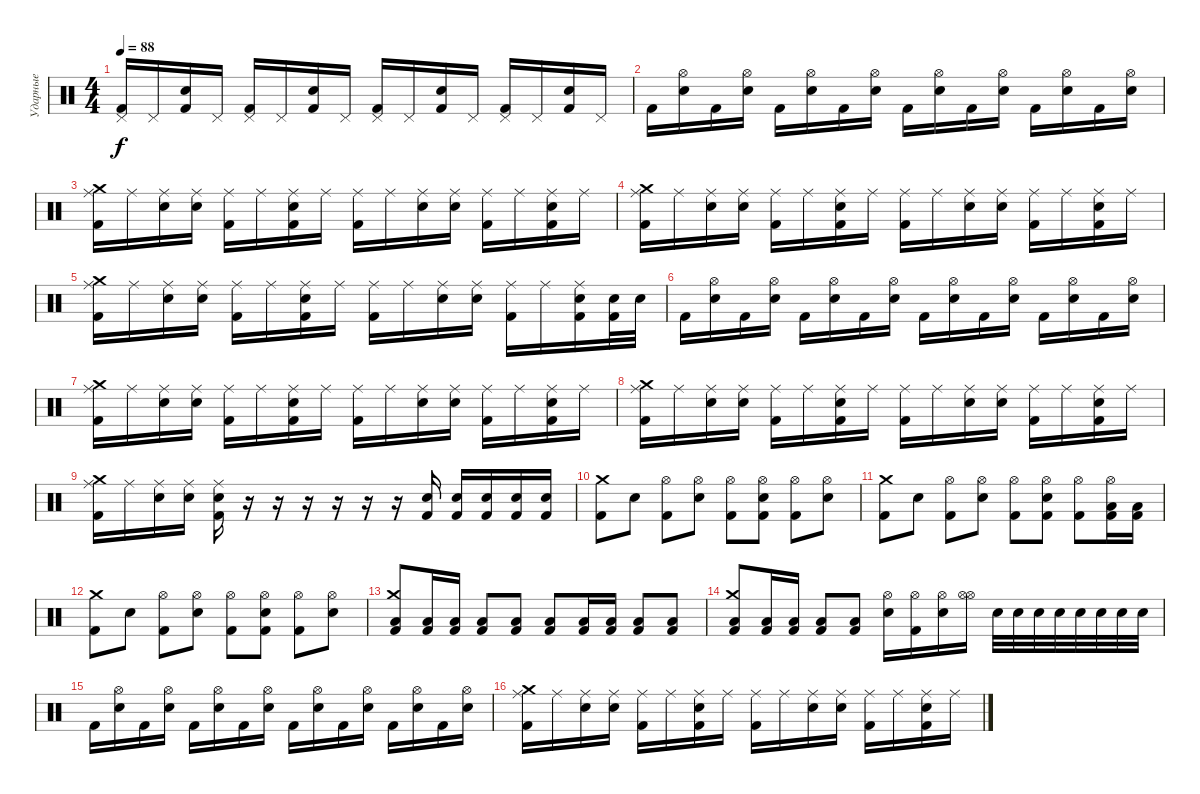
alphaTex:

\track ("Ударные" "Ударные") {instrument percussion}
\staff {score}
\articulation defaults
\ts (4 4)
\tempo 88
\clef neutral
\ks c
("Kick (hit) 2" "Pedal Hi-Hat (hit)").16{dy f} "Pedal Hi-Hat (hit)".16 ("Kick (hit) 2" "Electric Snare (hit)").16 "Pedal Hi-Hat (hit)".16 ("Kick (hit) 2" "Pedal Hi-Hat (hit)").16 "Pedal Hi-Hat (hit)".16 ("Kick (hit) 2" "Electric Snare (hit)").16 "Pedal Hi-Hat (hit)".16 ("Kick (hit) 2" "Pedal Hi-Hat (hit)").16 "Pedal Hi-Hat (hit)".16 ("Kick (hit) 2" "Electric Snare (hit)").16 "Pedal Hi-Hat (hit)".16 ("Kick (hit) 2" "Pedal Hi-Hat (hit)").16 "Pedal Hi-Hat (hit)".16 ("Kick (hit) 2" "Electric Snare (hit)").16 "Pedal Hi-Hat (hit)".16 |
"Kick (hit) 2".16 ("Electric Snare (hit)" "Hi-Hat (open)").16 "Kick (hit) 2".16 ("Electric Snare (hit)" "Hi-Hat (open)").16 "Kick (hit) 2".16 ("Electric Snare (hit)" "Hi-Hat (open)").16 "Kick (hit) 2".16 ("Electric Snare (hit)" "Hi-Hat (open)").16 "Kick (hit) 2".16 ("Electric Snare (hit)" "Hi-Hat (open)").16 "Kick (hit) 2".16 ("Electric Snare (hit)" "Hi-Hat (open)").16 "Kick (hit) 2".16 ("Electric Snare (hit)" "Hi-Hat (open)").16 "Kick (hit) 2".16 ("Electric Snare (hit)" "Hi-Hat (open)").16 |
("Kick (hit) 2" "Ride (middle)" "Crash medium (hit)").16 "Ride (middle)".16 ("Ride (middle)" "Electric Snare (hit)").16 ("Ride (middle)" "Electric Snare (hit)").16 ("Kick (hit) 2" "Ride (middle)").16 "Ride (middle)".16 ("Kick (hit) 2" "Ride (middle)" "Electric Snare (hit)").16 "Ride (middle)".16 ("Kick (hit) 2" "Ride (middle)").16 "Ride (middle)".16 ("Ride (middle)" "Electric Snare (hit)").16 ("Ride (middle)" "Electric Snare (hit)").16 ("Kick (hit) 2" "Ride (middle)").16 "Ride (middle)".16 ("Kick (hit) 2" "Ride (middle)" "Electric Snare (hit)").16 "Ride (middle)".16 |
("Kick (hit) 2" "Ride (middle)" "Crash medium (hit)").16 "Ride (middle)".16 ("Ride (middle)" "Electric Snare (hit)").16 ("Ride (middle)" "Electric Snare (hit)").16 ("Kick (hit) 2" "Ride (middle)").16 "Ride (middle)".16 ("Kick (hit) 2" "Ride (middle)" "Electric Snare (hit)").16 "Ride (middle)".16 ("Kick (hit) 2" "Ride (middle)").16 "Ride (middle)".16 ("Ride (middle)" "Electric Snare (hit)").16 ("Ride (middle)" "Electric Snare (hit)").16 ("Kick (hit) 2" "Ride (middle)").16 "Ride (middle)".16 ("Kick (hit) 2" "Ride (middle)" "Electric Snare (hit)").16 "Ride (middle)".16 |
("Kick (hit) 2" "Ride (middle)" "Crash medium (hit)").16 "Ride (middle)".16 ("Ride (middle)" "Electric Snare (hit)").16 ("Ride (middle)" "Electric Snare (hit)").16 ("Kick (hit) 2" "Ride (middle)").16 "Ride (middle)".16 ("Kick (hit) 2" "Ride (middle)" "Electric Snare (hit)").16 "Ride (middle)".16 ("Kick (hit) 2" "Ride (middle)").16 "Ride (middle)".16 ("Ride (middle)" "Electric Snare (hit)").16 ("Ride (middle)" "Electric Snare (hit)").16 ("Kick (hit) 2" "Ride (middle)").16 "Ride (middle)".16 ("Kick (hit) 2" "Ride (middle)" "Electric Snare (hit)").16 ("Kick (hit) 2" "Electric Snare (hit)").32 "Electric Snare (hit)".32 |
"Kick (hit) 2".16 ("Electric Snare (hit)" "Hi-Hat (open)").16 "Kick (hit) 2".16 ("Electric Snare (hit)" "Hi-Hat (open)").16 "Kick (hit) 2".16 ("Electric Snare (hit)" "Hi-Hat (open)").16 "Kick (hit) 2".16 ("Electric Snare (hit)" "Hi-Hat (open)").16 "Kick (hit) 2".16 ("Electric Snare (hit)" "Hi-Hat (open)").16 "Kick (hit) 2".16 ("Electric Snare (hit)" "Hi-Hat (open)").16 "Kick (hit) 2".16 ("Electric Snare (hit)" "Hi-Hat (open)").16 "Kick (hit) 2".16 ("Electric Snare (hit)" "Hi-Hat (open)").16 |
("Kick (hit) 2" "Ride (middle)" "Crash medium (hit)").16 "Ride (middle)".16 ("Ride (middle)" "Electric Snare (hit)").16 ("Ride (middle)" "Electric Snare (hit)").16 ("Kick (hit) 2" "Ride (middle)").16 "Ride (middle)".16 ("Kick (hit) 2" "Ride (middle)" "Electric Snare (hit)").16 "Ride (middle)".16 ("Kick (hit) 2" "Ride (middle)").16 "Ride (middle)".16 ("Ride (middle)" "Electric Snare (hit)").16 ("Ride (middle)" "Electric Snare (hit)").16 ("Kick (hit) 2" "Ride (middle)").16 "Ride (middle)".16 ("Kick (hit) 2" "Ride (middle)" "Electric Snare (hit)").16 "Ride (middle)".16 |
("Kick (hit) 2" "Ride (middle)" "Crash medium (hit)").16 "Ride (middle)".16 ("Ride (middle)" "Electric Snare (hit)").16 ("Ride (middle)" "Electric Snare (hit)").16 ("Kick (hit) 2" "Ride (middle)").16 "Ride (middle)".16 ("Kick (hit) 2" "Ride (middle)" "Electric Snare (hit)").16 "Ride (middle)".16 ("Kick (hit) 2" "Ride (middle)").16 "Ride (middle)".16 ("Ride (middle)" "Electric Snare (hit)").16 ("Ride (middle)" "Electric Snare (hit)").16 ("Kick (hit) 2" "Ride (middle)").16 "Ride (middle)".16 ("Kick (hit) 2" "Ride (middle)" "Electric Snare (hit)").16 "Ride (middle)".16 |
("Kick (hit) 2" "Ride (middle)" "Crash medium (hit)").16 "Ride (middle)".16 ("Ride (middle)" "Electric Snare (hit)").16 ("Ride (middle)" "Electric Snare (hit)").16 ("Kick (hit) 2" "Electric Snare (hit)" "Ride (middle)").16 r.16 r.16 r.16 r.16 r.16 r.16 ("Kick (hit) 2" "Electric Snare (hit)").16 ("Kick (hit) 2" "Electric Snare (hit)").16 ("Kick (hit) 2" "Electric Snare (hit)").16 ("Kick (hit) 2" "Electric Snare (hit)").16 ("Kick (hit) 2" "Electric Snare (hit)").16 |
("Kick (hit) 2" "Crash medium (hit)").8 "Electric Snare (hit)".8 ("Kick (hit) 2" "Hi-Hat (open)").8 ("Electric Snare (hit)" "Hi-Hat (open)").8 ("Kick (hit) 2" "Hi-Hat (open)").8 ("Kick (hit) 2" "Electric Snare (hit)" "Hi-Hat (open)").8 ("Kick (hit) 2" "Hi-Hat (open)").8 ("Electric Snare (hit)" "Hi-Hat (open)").8 |
("Kick (hit) 2" "Crash medium (hit)").8 "Electric Snare (hit)".8 ("Kick (hit) 2" "Hi-Hat (open)").8 ("Electric Snare (hit)" "Hi-Hat (open)").8 ("Kick (hit) 2" "Hi-Hat (open)").8 ("Kick (hit) 2" "Electric Snare (hit)" "Hi-Hat (open)").8 ("Kick (hit) 2" "Hi-Hat (open)").8 ("Kick (hit) 2" "Low Tom (hit)" "Hi-Hat (open)").16 ("Kick (hit) 2" "Low Tom (hit)").16 |
("Kick (hit) 2" "Crash medium (hit)").8 "Electric Snare (hit)".8 ("Kick (hit) 2" "Hi-Hat (open)").8 ("Electric Snare (hit)" "Hi-Hat (open)").8 ("Kick (hit) 2" "Hi-Hat (open)").8 ("Kick (hit) 2" "Electric Snare (hit)" "Hi-Hat (open)").8 ("Kick (hit) 2" "Hi-Hat (open)").8 ("Electric Snare (hit)" "Hi-Hat (open)").8 |
("Kick (hit) 2" "Low Tom (hit)" "Crash medium (hit)").8 ("Kick (hit) 2" "Low Tom (hit)").16 ("Kick (hit) 2" "Low Tom (hit)").16 ("Kick (hit) 2" "Low Tom (hit)").8 ("Kick (hit) 2" "Low Tom (hit)").8 ("Kick (hit) 2" "Low Tom (hit)").8 ("Kick (hit) 2" "Low Tom (hit)").16 ("Kick (hit) 2" "Low Tom (hit)").16 ("Kick (hit) 2" "Low Tom (hit)").8 ("Kick (hit) 2" "Low Tom (hit)").8 |
("Kick (hit) 2" "Low Tom (hit)" "Crash medium (hit)").8 ("Kick (hit) 2" "Low Tom (hit)").16 ("Kick (hit) 2" "Low Tom (hit)").16 ("Kick (hit) 2" "Low Tom (hit)").8 ("Kick (hit) 2" "Low Tom (hit)").8 ("Electric Snare (hit)" "Hi-Hat (open)").16 ("Kick (hit) 2" "Hi-Hat (open)").16 ("Electric Snare (hit)" "Hi-Hat (open)").16 ("Hi-Hat (open)" "Hi-Hat (open)").16 "Electric Snare (hit)".32 "Electric Snare (hit)".32 "Electric Snare (hit)".32 "Electric Snare (hit)".32 "Electric Snare (hit)".32 "Electric Snare (hit)".32 "Electric Snare (hit)".32 "Electric Snare (hit)".32 |
"Kick (hit) 2".16 ("Electric Snare (hit)" "Hi-Hat (open)").16 "Kick (hit) 2".16 ("Electric Snare (hit)" "Hi-Hat (open)").16 "Kick (hit) 2".16 ("Electric Snare (hit)" "Hi-Hat (open)").16 "Kick (hit) 2".16 ("Electric Snare (hit)" "Hi-Hat (open)").16 "Kick (hit) 2".16 ("Electric Snare (hit)" "Hi-Hat (open)").16 "Kick (hit) 2".16 ("Electric Snare (hit)" "Hi-Hat (open)").16 "Kick (hit) 2".16 ("Electric Snare (hit)" "Hi-Hat (open)").16 "Kick (hit) 2".16 ("Electric Snare (hit)" "Hi-Hat (open)").16 |
("Kick (hit) 2" "Ride (middle)" "Crash medium (hit)").16 "Ride (middle)".16 ("Ride (middle)" "Electric Snare (hit)").16 ("Ride (middle)" "Electric Snare (hit)").16 ("Kick (hit) 2" "Ride (middle)").16 "Ride (middle)".16 ("Kick (hit) 2" "Ride (middle)" "Electric Snare (hit)").16 "Ride (middle)".16 ("Kick (hit) 2" "Ride (middle)").16 "Ride (middle)".16 ("Ride (middle)" "Electric Snare (hit)").16 ("Ride (middle)" "Electric Snare (hit)").16 ("Kick (hit) 2" "Ride (middle)").16 "Ride (middle)".16 ("Kick (hit) 2" "Ride (middle)" "Electric Snare (hit)").16 "Ride (middle)".16
